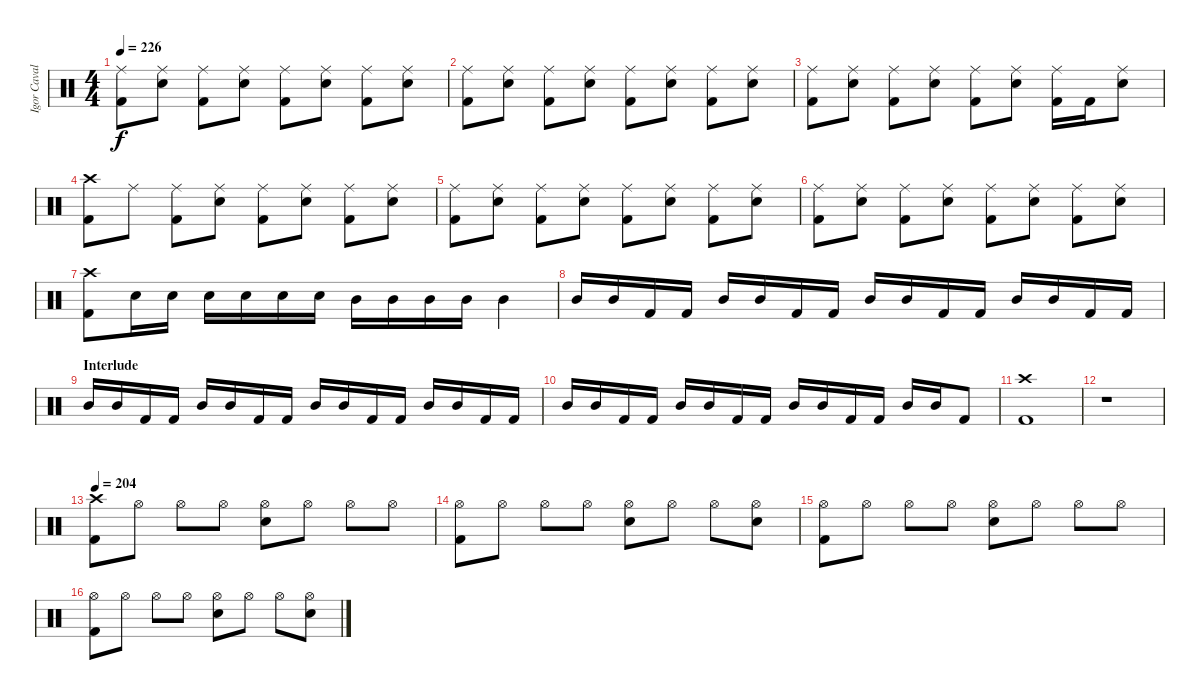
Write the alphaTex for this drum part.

\track ("Igor Cavalera" "Igor Caval") {instrument percussion}
\staff {score}
\articulation defaults
\ts (4 4)
\tempo 226
\clef neutral
\ks c
("Kick (hit) 2" "Ride (middle)").8{dy f} ("Snare (hit) 2" "Ride (middle)").8 ("Kick (hit) 2" "Ride (middle)").8 ("Snare (hit) 2" "Ride (middle)").8 ("Kick (hit) 2" "Ride (middle)").8 ("Snare (hit) 2" "Ride (middle)").8 ("Kick (hit) 2" "Ride (middle)").8 ("Snare (hit) 2" "Ride (middle)").8 |
("Kick (hit) 2" "Ride (middle)").8 ("Snare (hit) 2" "Ride (middle)").8 ("Kick (hit) 2" "Ride (middle)").8 ("Snare (hit) 2" "Ride (middle)").8 ("Kick (hit) 2" "Ride (middle)").8 ("Snare (hit) 2" "Ride (middle)").8 ("Kick (hit) 2" "Ride (middle)").8 ("Snare (hit) 2" "Ride (middle)").8 |
("Kick (hit) 2" "Ride (middle)").8 ("Snare (hit) 2" "Ride (middle)").8 ("Kick (hit) 2" "Ride (middle)").8 ("Snare (hit) 2" "Ride (middle)").8 ("Kick (hit) 2" "Ride (middle)").8 ("Snare (hit) 2" "Ride (middle)").8 ("Kick (hit) 2" "Ride (middle)").16 "Kick (hit) 2".16 ("Snare (hit) 2" "Ride (middle)").8 |
("Kick (hit) 2" "Crash high (hit)").8 "Ride (middle)".8 ("Kick (hit) 2" "Ride (middle)").8 ("Snare (hit) 2" "Ride (middle)").8 ("Kick (hit) 2" "Ride (middle)").8 ("Snare (hit) 2" "Ride (middle)").8 ("Kick (hit) 2" "Ride (middle)").8 ("Snare (hit) 2" "Ride (middle)").8 |
("Kick (hit) 2" "Ride (middle)").8 ("Snare (hit) 2" "Ride (middle)").8 ("Kick (hit) 2" "Ride (middle)").8 ("Snare (hit) 2" "Ride (middle)").8 ("Kick (hit) 2" "Ride (middle)").8 ("Snare (hit) 2" "Ride (middle)").8 ("Kick (hit) 2" "Ride (middle)").8 ("Snare (hit) 2" "Ride (middle)").8 |
("Kick (hit) 2" "Ride (middle)").8 ("Snare (hit) 2" "Ride (middle)").8 ("Kick (hit) 2" "Ride (middle)").8 ("Snare (hit) 2" "Ride (middle)").8 ("Kick (hit) 2" "Ride (middle)").8 ("Snare (hit) 2" "Ride (middle)").8 ("Kick (hit) 2" "Ride (middle)").8 ("Snare (hit) 2" "Ride (middle)").8 |
("Kick (hit) 2" "Crash high (hit)").8 "Snare (hit) 2".16 "Snare (hit) 2".16 "Snare (hit) 2".16 "Snare (hit) 2".16 "Snare (hit) 2".16 "Snare (hit) 2".16 "Mid Tom (hit)".16 "Mid Tom (hit)".16 "Mid Tom (hit)".16 "Mid Tom (hit)".16 "Mid Tom (hit)".4 |
"Mid Tom (hit)".16 "Mid Tom (hit)".16 "Kick (hit) 2".16 "Kick (hit) 2".16 "Mid Tom (hit)".16 "Mid Tom (hit)".16 "Kick (hit) 2".16 "Kick (hit) 2".16 "Mid Tom (hit)".16 "Mid Tom (hit)".16 "Kick (hit) 2".16 "Kick (hit) 2".16 "Mid Tom (hit)".16 "Mid Tom (hit)".16 "Kick (hit) 2".16 "Kick (hit) 2".16 |
\section ("" "Interlude")
"Mid Tom (hit)".16 "Mid Tom (hit)".16 "Kick (hit) 2".16 "Kick (hit) 2".16 "Mid Tom (hit)".16 "Mid Tom (hit)".16 "Kick (hit) 2".16 "Kick (hit) 2".16 "Mid Tom (hit)".16 "Mid Tom (hit)".16 "Kick (hit) 2".16 "Kick (hit) 2".16 "Mid Tom (hit)".16 "Mid Tom (hit)".16 "Kick (hit) 2".16 "Kick (hit) 2".16 |
"Mid Tom (hit)".16 "Mid Tom (hit)".16 "Kick (hit) 2".16 "Kick (hit) 2".16 "Mid Tom (hit)".16 "Mid Tom (hit)".16 "Kick (hit) 2".16 "Kick (hit) 2".16 "Mid Tom (hit)".16 "Mid Tom (hit)".16 "Kick (hit) 2".16 "Kick (hit) 2".16 "Mid Tom (hit)".16 "Mid Tom (hit)".16 "Kick (hit) 2".8 |
("Kick (hit) 2" "Crash high (hit)").1 |
r.1 |
\tempo 204
("Kick (hit) 2" "Crash high (hit)").8 "Hi-Hat (open)".8 "Hi-Hat (open)".8 "Hi-Hat (open)".8 ("Snare (hit) 2" "Hi-Hat (open)").8 "Hi-Hat (open)".8 "Hi-Hat (open)".8 "Hi-Hat (open)".8 |
("Kick (hit) 2" "Hi-Hat (open)").8 "Hi-Hat (open)".8 "Hi-Hat (open)".8 "Hi-Hat (open)".8 ("Snare (hit) 2" "Hi-Hat (open)").8 "Hi-Hat (open)".8 "Hi-Hat (open)".8 ("Snare (hit) 2" "Hi-Hat (open)").8 |
("Kick (hit) 2" "Hi-Hat (open)").8 "Hi-Hat (open)".8 "Hi-Hat (open)".8 "Hi-Hat (open)".8 ("Snare (hit) 2" "Hi-Hat (open)").8 "Hi-Hat (open)".8 "Hi-Hat (open)".8 "Hi-Hat (open)".8 |
("Kick (hit) 2" "Hi-Hat (open)").8 "Hi-Hat (open)".8 "Hi-Hat (open)".8 "Hi-Hat (open)".8 ("Snare (hit) 2" "Hi-Hat (open)").8 "Hi-Hat (open)".8 "Hi-Hat (open)".8 ("Snare (hit) 2" "Hi-Hat (open)").8
